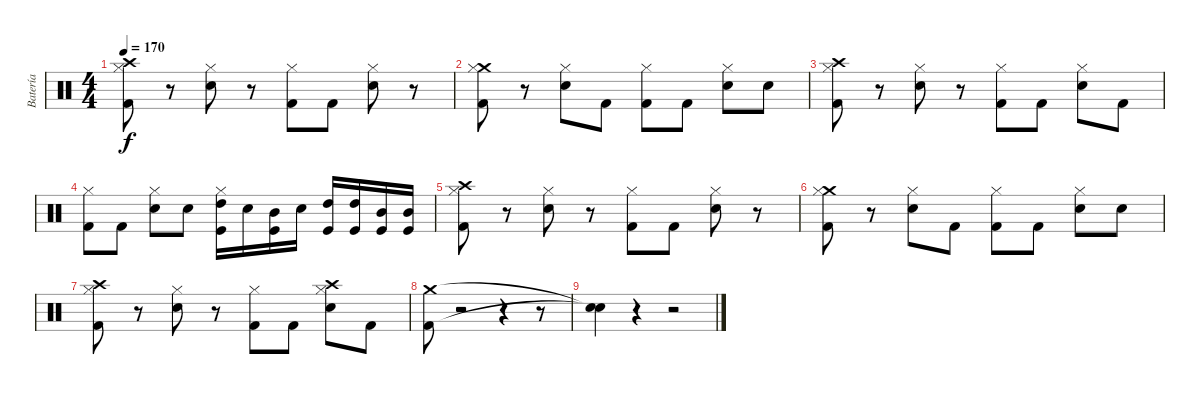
\track ("Batería" "Batería") {instrument percussion}
\staff {score}
\articulation defaults
\ts (4 4)
\tempo 170
\clef neutral
\ks c
("Crash high (hit)" "Kick (hit) 2" "Hi-Hat (closed)").8{dy f} r.8 ("Snare (hit) 2" "Hi-Hat (closed)").8 r.8 ("Kick (hit) 2" "Hi-Hat (closed)").8 "Kick (hit) 2".8 ("Snare (hit) 2" "Hi-Hat (closed)").8 r.8 |
("Crash medium (hit)" "Kick (hit) 2" "Hi-Hat (closed)").8 r.8 ("Snare (hit) 2" "Hi-Hat (closed)").8 "Kick (hit) 2".8 ("Kick (hit) 2" "Hi-Hat (closed)").8 "Kick (hit) 2".8 ("Snare (hit) 2" "Hi-Hat (closed)").8 "Snare (hit)".8 |
("Crash high (hit)" "Hi-Hat (closed)" "Kick (hit) 2").8 r.8 ("Hi-Hat (closed)" "Snare (hit) 2").8 r.8 ("Hi-Hat (closed)" "Kick (hit) 2").8 "Kick (hit) 2".8 ("Hi-Hat (closed)" "Snare (hit) 2").8 "Kick (hit) 2".8 |
("Hi-Hat (closed)" "Kick (hit) 2").8 "Kick (hit) 2".8 ("Hi-Hat (closed)" "Snare (hit) 2").8 "Snare (hit)".8 ("High Tom (hit)" "Hi-Hat (closed)" "Kick (hit)").16 "Snare (hit)".16 ("Mid Tom (hit)" "Kick (hit)").16 "Snare (hit)".16 ("High Tom (hit)" "Kick (hit)").16 ("High Tom (hit)" "Kick (hit)").16 ("Mid Tom (hit)" "Kick (hit)").16 ("Mid Tom (hit)" "Kick (hit)").16 |
("Crash high (hit)" "Kick (hit) 2" "Hi-Hat (closed)").8 r.8 ("Snare (hit) 2" "Hi-Hat (closed)").8 r.8 ("Kick (hit) 2" "Hi-Hat (closed)").8 "Kick (hit) 2".8 ("Snare (hit) 2" "Hi-Hat (closed)").8 r.8 |
("Crash medium (hit)" "Kick (hit) 2" "Hi-Hat (closed)").8 r.8 ("Snare (hit) 2" "Hi-Hat (closed)").8 "Kick (hit) 2".8 ("Kick (hit) 2" "Hi-Hat (closed)").8 "Kick (hit) 2".8 ("Snare (hit) 2" "Hi-Hat (closed)").8 "Snare (hit)".8 |
("Crash high (hit)" "Hi-Hat (closed)" "Kick (hit) 2").8 r.8 ("Hi-Hat (closed)" "Snare (hit) 2").8 r.8 ("Hi-Hat (closed)" "Kick (hit) 2").8 "Kick (hit) 2".8 ("Crash high (hit)" "Hi-Hat (closed)" "Snare (hit) 2").8 "Kick (hit) 2".8 |
("Crash medium (hit)" "Kick (hit) 2").8 r.2 r.4 r.8 |
("Snare (hit)"{t} "Snare (hit)"{t}).4 r.4 r.2
